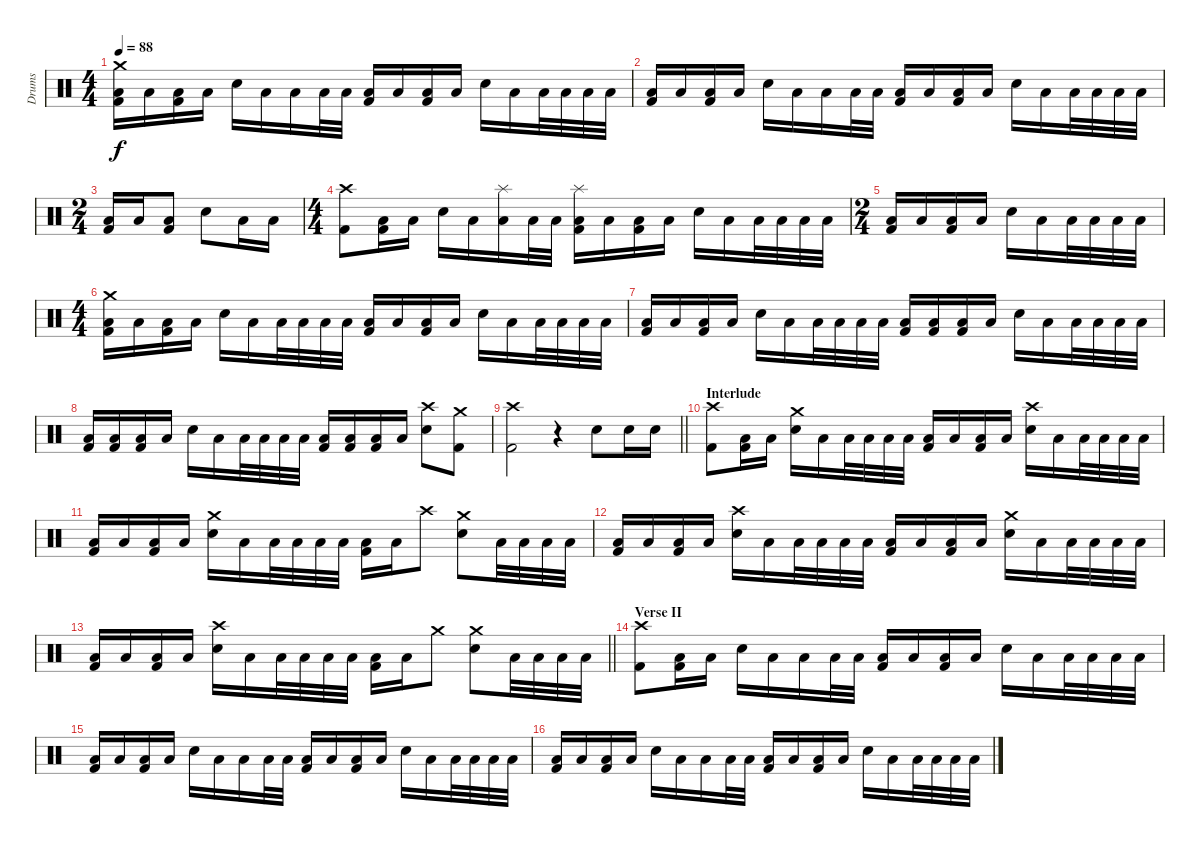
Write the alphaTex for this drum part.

\track ("Drums" "Drums") {instrument percussion}
\staff {score}
\articulation defaults
\ts (4 4)
\tempo 88
\clef neutral
\ks c
("Crash medium (hit)" "Low Tom (hit)" "Kick (hit) 2").16{dy f} "Low Tom (hit)".16 ("Low Tom (hit)" "Kick (hit) 2").16 "Low Tom (hit)".16 "Snare (hit) 2".16 "Low Tom (hit)".16 "Low Tom (hit)".16 "Low Tom (hit)".32 "Low Tom (hit)".32 ("Low Tom (hit)" "Kick (hit) 2").16 "Low Tom (hit)".16 ("Low Tom (hit)" "Kick (hit) 2").16 "Low Tom (hit)".16 "Snare (hit) 2".16 "Low Tom (hit)".16 "Low Tom (hit)".32 "Low Tom (hit)".32 "Low Tom (hit)".32 "Low Tom (hit)".32 |
("Low Tom (hit)" "Kick (hit) 2").16 "Low Tom (hit)".16 ("Low Tom (hit)" "Kick (hit) 2").16 "Low Tom (hit)".16 "Snare (hit) 2".16 "Low Tom (hit)".16 "Low Tom (hit)".16 "Low Tom (hit)".32 "Low Tom (hit)".32 ("Low Tom (hit)" "Kick (hit) 2").16 "Low Tom (hit)".16 ("Low Tom (hit)" "Kick (hit) 2").16 "Low Tom (hit)".16 "Snare (hit) 2".16 "Low Tom (hit)".16 "Low Tom (hit)".32 "Low Tom (hit)".32 "Low Tom (hit)".32 "Low Tom (hit)".32 |
\ts (2 4)
("Low Tom (hit)" "Kick (hit) 2").16 "Low Tom (hit)".16 ("Low Tom (hit)" "Kick (hit) 2").8 "Snare (hit) 2".8 "Low Tom (hit)".16 "Low Tom (hit)".16 |
\ts (4 4)
("Crash high (hit)" "Kick (hit) 2").8 ("Low Tom (hit)" "Kick (hit) 2").16 "Low Tom (hit)".16 "Snare (hit) 2".16 "Low Tom (hit)".16 ("Splash (hit)" "Low Tom (hit)").16 "Low Tom (hit)".32 "Low Tom (hit)".32 ("Splash (hit)" "Low Tom (hit)" "Kick (hit) 2").16 "Low Tom (hit)".16 ("Low Tom (hit)" "Kick (hit) 2").16 "Low Tom (hit)".16 "Snare (hit) 2".16 "Low Tom (hit)".16 "Low Tom (hit)".32 "Low Tom (hit)".32 "Low Tom (hit)".32 "Low Tom (hit)".32 |
\ts (2 4)
("Low Tom (hit)" "Kick (hit) 2").16 "Low Tom (hit)".16 ("Low Tom (hit)" "Kick (hit) 2").16 "Low Tom (hit)".16 "Snare (hit) 2".16 "Low Tom (hit)".16 "Low Tom (hit)".32 "Low Tom (hit)".32 "Low Tom (hit)".32 "Low Tom (hit)".32 |
\ts (4 4)
("Crash medium (hit)" "Low Tom (hit)" "Kick (hit) 2").16 "Low Tom (hit)".16 ("Low Tom (hit)" "Kick (hit) 2").16 "Low Tom (hit)".16 "Snare (hit) 2".16 "Low Tom (hit)".16 "Low Tom (hit)".32 "Low Tom (hit)".32 "Low Tom (hit)".32 "Low Tom (hit)".32 ("Low Tom (hit)" "Kick (hit) 2").16 "Low Tom (hit)".16 ("Low Tom (hit)" "Kick (hit) 2").16 "Low Tom (hit)".16 "Snare (hit) 2".16 "Low Tom (hit)".16 "Low Tom (hit)".32 "Low Tom (hit)".32 "Low Tom (hit)".32 "Low Tom (hit)".32 |
("Low Tom (hit)" "Kick (hit) 2").16 "Low Tom (hit)".16 ("Low Tom (hit)" "Kick (hit) 2").16 "Low Tom (hit)".16 "Snare (hit) 2".16 "Low Tom (hit)".16 "Low Tom (hit)".32 "Low Tom (hit)".32 "Low Tom (hit)".32 "Low Tom (hit)".32 ("Low Tom (hit)" "Kick (hit) 2").16 ("Low Tom (hit)" "Kick (hit) 2").16 ("Low Tom (hit)" "Kick (hit) 2").16 "Low Tom (hit)".16 "Snare (hit) 2".16 "Low Tom (hit)".16 "Low Tom (hit)".32 "Low Tom (hit)".32 "Low Tom (hit)".32 "Low Tom (hit)".32 |
("Low Tom (hit)" "Kick (hit) 2").16 ("Low Tom (hit)" "Kick (hit) 2").16 ("Low Tom (hit)" "Kick (hit) 2").16 "Low Tom (hit)".16 "Snare (hit) 2".16 "Low Tom (hit)".16 "Low Tom (hit)".32 "Low Tom (hit)".32 "Low Tom (hit)".32 "Low Tom (hit)".32 ("Low Tom (hit)" "Kick (hit) 2").16 ("Low Tom (hit)" "Kick (hit) 2").16 ("Low Tom (hit)" "Kick (hit) 2").16 "Low Tom (hit)".16 ("Crash high (hit)" "Snare (hit) 2").8 ("Crash medium (hit)" "Kick (hit) 2").8 |
\barLineRight lightlight
("Crash high (hit)" "Kick (hit) 2").2 r.4 "Snare (hit) 2".8 "Snare (hit) 2".16 "Snare (hit) 2".16 |
\section ("" "Interlude")
("Crash high (hit)" "Kick (hit) 2").8 ("Low Tom (hit)" "Kick (hit) 2").16 "Low Tom (hit)".16 ("Crash medium (hit)" "Snare (hit) 2").16 "Low Tom (hit)".16 "Low Tom (hit)".32 "Low Tom (hit)".32 "Low Tom (hit)".32 "Low Tom (hit)".32 ("Low Tom (hit)" "Kick (hit) 2").16 "Low Tom (hit)".16 ("Low Tom (hit)" "Kick (hit) 2").16 "Low Tom (hit)".16 ("Crash high (hit)" "Snare (hit) 2").16 "Low Tom (hit)".16 "Low Tom (hit)".32 "Low Tom (hit)".32 "Low Tom (hit)".32 "Low Tom (hit)".32 |
("Low Tom (hit)" "Kick (hit) 2").16 "Low Tom (hit)".16 ("Low Tom (hit)" "Kick (hit) 2").16 "Low Tom (hit)".16 ("Crash medium (hit)" "Snare (hit) 2").16 "Low Tom (hit)".16 "Low Tom (hit)".32 "Low Tom (hit)".32 "Low Tom (hit)".32 "Low Tom (hit)".32 ("Low Tom (hit)" "Kick (hit) 2").16 "Low Tom (hit)".16 "Crash high (hit)".8 ("Crash medium (hit)" "Snare (hit) 2").8 "Low Tom (hit)".32 "Low Tom (hit)".32 "Low Tom (hit)".32 "Low Tom (hit)".32 |
("Low Tom (hit)" "Kick (hit) 2").16 "Low Tom (hit)".16 ("Low Tom (hit)" "Kick (hit) 2").16 "Low Tom (hit)".16 ("Crash high (hit)" "Snare (hit) 2").16 "Low Tom (hit)".16 "Low Tom (hit)".32 "Low Tom (hit)".32 "Low Tom (hit)".32 "Low Tom (hit)".32 ("Low Tom (hit)" "Kick (hit) 2").16 "Low Tom (hit)".16 ("Low Tom (hit)" "Kick (hit) 2").16 "Low Tom (hit)".16 ("Crash medium (hit)" "Snare (hit) 2").16 "Low Tom (hit)".16 "Low Tom (hit)".32 "Low Tom (hit)".32 "Low Tom (hit)".32 "Low Tom (hit)".32 |
\barLineRight lightlight
("Low Tom (hit)" "Kick (hit) 2").16 "Low Tom (hit)".16 ("Low Tom (hit)" "Kick (hit) 2").16 "Low Tom (hit)".16 ("Crash high (hit)" "Snare (hit) 2").16 "Low Tom (hit)".16 "Low Tom (hit)".32 "Low Tom (hit)".32 "Low Tom (hit)".32 "Low Tom (hit)".32 ("Low Tom (hit)" "Kick (hit) 2").16 "Low Tom (hit)".16 "Crash medium (hit)".8 ("Crash medium (hit)" "Snare (hit) 2").8 "Low Tom (hit)".32 "Low Tom (hit)".32 "Low Tom (hit)".32 "Low Tom (hit)".32 |
\section ("" "Verse II")
("Crash high (hit)" "Kick (hit) 2").8 ("Low Tom (hit)" "Kick (hit) 2").16 "Low Tom (hit)".16 "Snare (hit) 2".16 "Low Tom (hit)".16 "Low Tom (hit)".16 "Low Tom (hit)".32 "Low Tom (hit)".32 ("Low Tom (hit)" "Kick (hit) 2").16 "Low Tom (hit)".16 ("Low Tom (hit)" "Kick (hit) 2").16 "Low Tom (hit)".16 "Snare (hit) 2".16 "Low Tom (hit)".16 "Low Tom (hit)".32 "Low Tom (hit)".32 "Low Tom (hit)".32 "Low Tom (hit)".32 |
("Low Tom (hit)" "Kick (hit) 2").16 "Low Tom (hit)".16 ("Low Tom (hit)" "Kick (hit) 2").16 "Low Tom (hit)".16 "Snare (hit) 2".16 "Low Tom (hit)".16 "Low Tom (hit)".16 "Low Tom (hit)".32 "Low Tom (hit)".32 ("Low Tom (hit)" "Kick (hit) 2").16 "Low Tom (hit)".16 ("Low Tom (hit)" "Kick (hit) 2").16 "Low Tom (hit)".16 "Snare (hit) 2".16 "Low Tom (hit)".16 "Low Tom (hit)".32 "Low Tom (hit)".32 "Low Tom (hit)".32 "Low Tom (hit)".32 |
("Low Tom (hit)" "Kick (hit) 2").16 "Low Tom (hit)".16 ("Low Tom (hit)" "Kick (hit) 2").16 "Low Tom (hit)".16 "Snare (hit) 2".16 "Low Tom (hit)".16 "Low Tom (hit)".16 "Low Tom (hit)".32 "Low Tom (hit)".32 ("Low Tom (hit)" "Kick (hit) 2").16 "Low Tom (hit)".16 ("Low Tom (hit)" "Kick (hit) 2").16 "Low Tom (hit)".16 "Snare (hit) 2".16 "Low Tom (hit)".16 "Low Tom (hit)".32 "Low Tom (hit)".32 "Low Tom (hit)".32 "Low Tom (hit)".32
